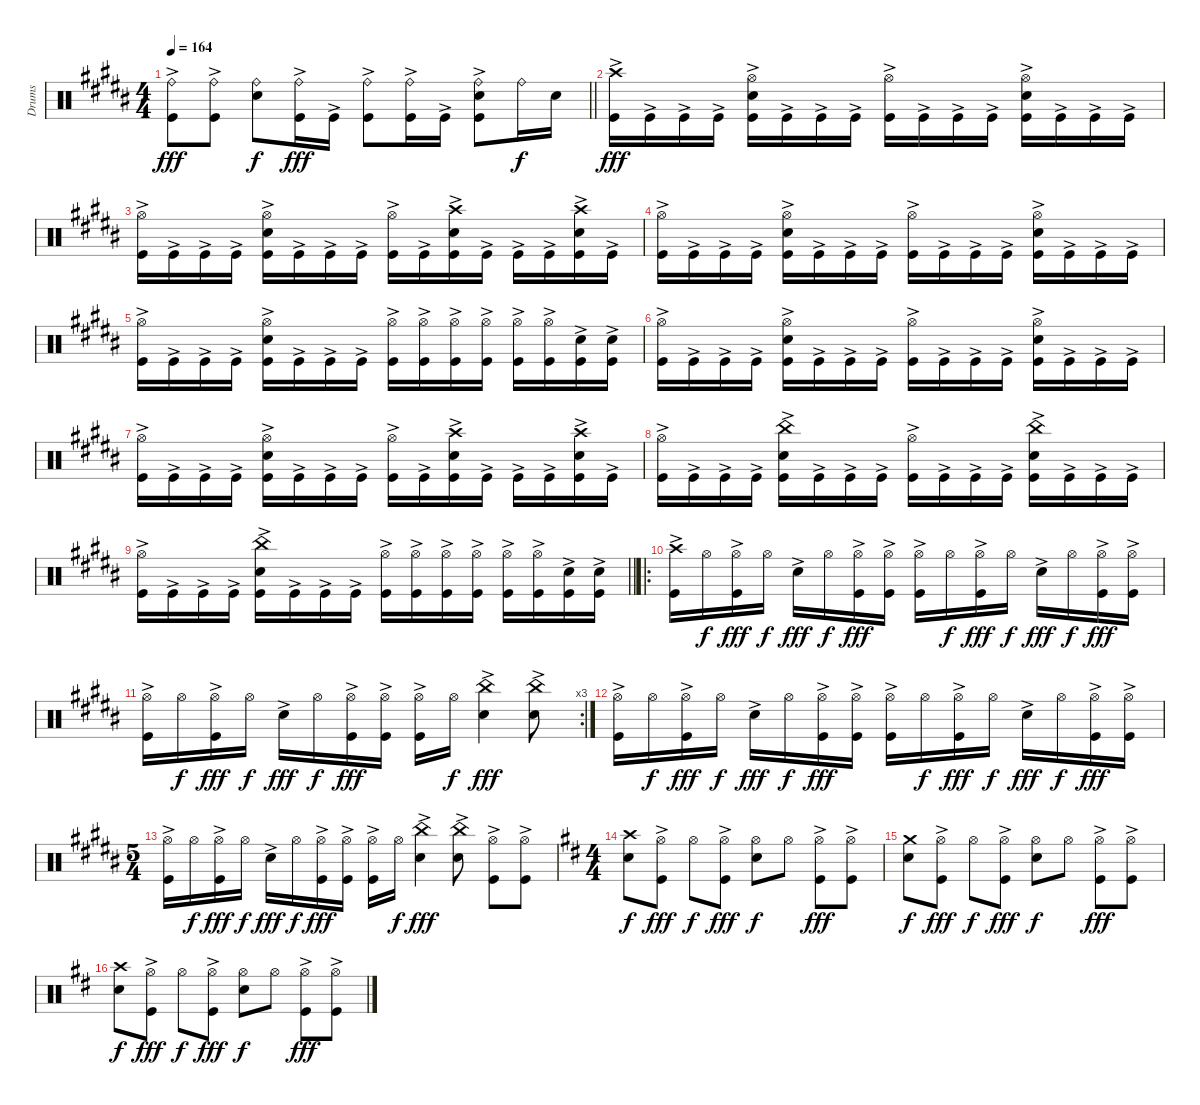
\track ("Drums" "Drums") {instrument percussion}
\staff {score}
\articulation defaults
\ts (4 4)
\tempo 164
\clef neutral
\barLineRight lightlight
\ks g#minor
("Ride (bell)" "Kick (hit)"{ac}).8{dy fff} ("Ride (bell)" "Kick (hit)"{ac}).8 ("Ride (bell)" "Snare (hit) 2").8{dy f} ("Ride (bell)" "Kick (hit)"{ac}).16{dy fff} "Kick (hit)"{ac}.16 ("Ride (bell)" "Kick (hit)"{ac}).8 ("Ride (bell)" "Kick (hit)"{ac}).16 "Kick (hit)"{ac}.16 ("Ride (bell)" "Snare (hit) 2" "Kick (hit)"{ac}).8 "Ride (bell)".16{dy f} "Snare (hit) 2".16 |
("Crash high (hit)" "Kick (hit)"{ac}).16{dy fff} "Kick (hit)"{ac}.16 "Kick (hit)"{ac}.16 "Kick (hit)"{ac}.16 ("Hi-Hat (open)" "Snare (hit) 2" "Kick (hit)"{ac}).16 "Kick (hit)"{ac}.16 "Kick (hit)"{ac}.16 "Kick (hit)"{ac}.16 ("Hi-Hat (open)" "Kick (hit)"{ac}).16 "Kick (hit)"{ac}.16 "Kick (hit)"{ac}.16 "Kick (hit)"{ac}.16 ("Hi-Hat (open)" "Snare (hit) 2" "Kick (hit)"{ac}).16 "Kick (hit)"{ac}.16 "Kick (hit)"{ac}.16 "Kick (hit)"{ac}.16 |
("Hi-Hat (open)" "Kick (hit)"{ac}).16 "Kick (hit)"{ac}.16 "Kick (hit)"{ac}.16 "Kick (hit)"{ac}.16 ("Hi-Hat (open)" "Snare (hit) 2" "Kick (hit)"{ac}).16 "Kick (hit)"{ac}.16 "Kick (hit)"{ac}.16 "Kick (hit)"{ac}.16 ("Hi-Hat (open)" "Kick (hit)"{ac}).16 "Kick (hit)"{ac}.16 ("Crash high (hit)" "Snare (hit) 2" "Kick (hit)"{ac}).16 "Kick (hit)"{ac}.16 "Kick (hit)"{ac}.16 "Kick (hit)"{ac}.16 ("Crash high (hit)" "Snare (hit) 2" "Kick (hit)"{ac}).16 "Kick (hit)"{ac}.16 |
("Hi-Hat (open)" "Kick (hit)"{ac}).16 "Kick (hit)"{ac}.16 "Kick (hit)"{ac}.16 "Kick (hit)"{ac}.16 ("Hi-Hat (open)" "Snare (hit) 2" "Kick (hit)"{ac}).16 "Kick (hit)"{ac}.16 "Kick (hit)"{ac}.16 "Kick (hit)"{ac}.16 ("Hi-Hat (open)" "Kick (hit)"{ac}).16 "Kick (hit)"{ac}.16 "Kick (hit)"{ac}.16 "Kick (hit)"{ac}.16 ("Hi-Hat (open)" "Snare (hit) 2" "Kick (hit)"{ac}).16 "Kick (hit)"{ac}.16 "Kick (hit)"{ac}.16 "Kick (hit)"{ac}.16 |
("Hi-Hat (open)" "Kick (hit)"{ac}).16 "Kick (hit)"{ac}.16 "Kick (hit)"{ac}.16 "Kick (hit)"{ac}.16 ("Hi-Hat (open)" "Snare (hit) 2" "Kick (hit)"{ac}).16 "Kick (hit)"{ac}.16 "Kick (hit)"{ac}.16 "Kick (hit)"{ac}.16 ("Hi-Hat (open)" "Kick (hit)"{ac}).16 ("Hi-Hat (open)" "Kick (hit)"{ac}).16 ("Hi-Hat (open)" "Kick (hit)"{ac}).16 ("Hi-Hat (open)" "Kick (hit)"{ac}).16 ("Hi-Hat (open)" "Kick (hit)"{ac}).16 ("Hi-Hat (open)" "Kick (hit)"{ac}).16 ("Snare (hit) 2"{ac} "Kick (hit)"{ac}).16 ("Snare (hit) 2"{ac} "Kick (hit)"{ac}).16 |
("Hi-Hat (open)" "Kick (hit)"{ac}).16 "Kick (hit)"{ac}.16 "Kick (hit)"{ac}.16 "Kick (hit)"{ac}.16 ("Hi-Hat (open)" "Snare (hit) 2" "Kick (hit)"{ac}).16 "Kick (hit)"{ac}.16 "Kick (hit)"{ac}.16 "Kick (hit)"{ac}.16 ("Hi-Hat (open)" "Kick (hit)"{ac}).16 "Kick (hit)"{ac}.16 "Kick (hit)"{ac}.16 "Kick (hit)"{ac}.16 ("Hi-Hat (open)" "Snare (hit) 2" "Kick (hit)"{ac}).16 "Kick (hit)"{ac}.16 "Kick (hit)"{ac}.16 "Kick (hit)"{ac}.16 |
("Hi-Hat (open)" "Kick (hit)"{ac}).16 "Kick (hit)"{ac}.16 "Kick (hit)"{ac}.16 "Kick (hit)"{ac}.16 ("Hi-Hat (open)" "Snare (hit) 2" "Kick (hit)"{ac}).16 "Kick (hit)"{ac}.16 "Kick (hit)"{ac}.16 "Kick (hit)"{ac}.16 ("Hi-Hat (open)" "Kick (hit)"{ac}).16 "Kick (hit)"{ac}.16 ("Crash high (hit)" "Snare (hit) 2" "Kick (hit)"{ac}).16 "Kick (hit)"{ac}.16 "Kick (hit)"{ac}.16 "Kick (hit)"{ac}.16 ("Crash high (hit)" "Snare (hit) 2" "Kick (hit)"{ac}).16 "Kick (hit)"{ac}.16 |
("Hi-Hat (open)" "Kick (hit)"{ac}).16 "Kick (hit)"{ac}.16 "Kick (hit)"{ac}.16 "Kick (hit)"{ac}.16 ("China (hit)" "Snare (hit) 2" "Kick (hit)"{ac}).16 "Kick (hit)"{ac}.16 "Kick (hit)"{ac}.16 "Kick (hit)"{ac}.16 ("Hi-Hat (open)" "Kick (hit)"{ac}).16 "Kick (hit)"{ac}.16 "Kick (hit)"{ac}.16 "Kick (hit)"{ac}.16 ("China (hit)" "Snare (hit) 2" "Kick (hit)"{ac}).16 "Kick (hit)"{ac}.16 "Kick (hit)"{ac}.16 "Kick (hit)"{ac}.16 |
\barLineRight lightlight
("Hi-Hat (open)" "Kick (hit)"{ac}).16 "Kick (hit)"{ac}.16 "Kick (hit)"{ac}.16 "Kick (hit)"{ac}.16 ("China (hit)" "Snare (hit) 2" "Kick (hit)"{ac}).16 "Kick (hit)"{ac}.16 "Kick (hit)"{ac}.16 "Kick (hit)"{ac}.16 ("Hi-Hat (open)" "Kick (hit)"{ac}).16 ("Hi-Hat (open)" "Kick (hit)"{ac}).16 ("Hi-Hat (open)" "Kick (hit)"{ac}).16 ("Hi-Hat (open)" "Kick (hit)"{ac}).16 ("Hi-Hat (open)" "Kick (hit)"{ac}).16 ("Hi-Hat (open)" "Kick (hit)"{ac}).16 ("Snare (hit) 2"{ac} "Kick (hit)"{ac}).16 ("Snare (hit) 2"{ac} "Kick (hit)"{ac}).16 |
\ro
("Crash high (hit)" "Kick (hit)"{ac}).16 "Hi-Hat (open)".16{dy f} ("Hi-Hat (open)" "Kick (hit)"{ac}).16{dy fff} "Hi-Hat (open)".16{dy f} "Snare (hit) 2"{ac}.16{dy fff} "Hi-Hat (open)".16{dy f} ("Hi-Hat (open)" "Kick (hit)"{ac}).16{dy fff} ("Hi-Hat (open)" "Kick (hit)"{ac}).16 ("Hi-Hat (open)" "Kick (hit)"{ac}).16 "Hi-Hat (open)".16{dy f} ("Hi-Hat (open)" "Kick (hit)"{ac}).16{dy fff} "Hi-Hat (open)".16{dy f} "Snare (hit) 2"{ac}.16{dy fff} "Hi-Hat (open)".16{dy f} ("Hi-Hat (open)" "Kick (hit)"{ac}).16{dy fff} ("Hi-Hat (open)" "Kick (hit)"{ac}).16 |
\rc 3
("Hi-Hat (open)" "Kick (hit)"{ac}).16 "Hi-Hat (open)".16{dy f} ("Hi-Hat (open)" "Kick (hit)"{ac}).16{dy fff} "Hi-Hat (open)".16{dy f} "Snare (hit) 2"{ac}.16{dy fff} "Hi-Hat (open)".16{dy f} ("Hi-Hat (open)" "Kick (hit)"{ac}).16{dy fff} ("Hi-Hat (open)" "Kick (hit)"{ac}).16 ("Hi-Hat (open)" "Kick (hit)"{ac}).16 "Hi-Hat (open)".16{dy f} ("China (hit)"{ac} "Snare (hit) 2"{ac}).4{dy fff} ("China (hit)"{ac} "Snare (hit) 2"{ac}).8 |
("Hi-Hat (open)" "Kick (hit)"{ac}).16 "Hi-Hat (open)".16{dy f} ("Hi-Hat (open)" "Kick (hit)"{ac}).16{dy fff} "Hi-Hat (open)".16{dy f} "Snare (hit) 2"{ac}.16{dy fff} "Hi-Hat (open)".16{dy f} ("Hi-Hat (open)" "Kick (hit)"{ac}).16{dy fff} ("Hi-Hat (open)" "Kick (hit)"{ac}).16 ("Hi-Hat (open)" "Kick (hit)"{ac}).16 "Hi-Hat (open)".16{dy f} ("Hi-Hat (open)" "Kick (hit)"{ac}).16{dy fff} "Hi-Hat (open)".16{dy f} "Snare (hit) 2"{ac}.16{dy fff} "Hi-Hat (open)".16{dy f} ("Hi-Hat (open)" "Kick (hit)"{ac}).16{dy fff} ("Hi-Hat (open)" "Kick (hit)"{ac}).16 |
\ts (5 4)
("Hi-Hat (open)" "Kick (hit)"{ac}).16 "Hi-Hat (open)".16{dy f} ("Hi-Hat (open)" "Kick (hit)"{ac}).16{dy fff} "Hi-Hat (open)".16{dy f} "Snare (hit) 2"{ac}.16{dy fff} "Hi-Hat (open)".16{dy f} ("Hi-Hat (open)" "Kick (hit)"{ac}).16{dy fff} ("Hi-Hat (open)" "Kick (hit)"{ac}).16 ("Hi-Hat (open)" "Kick (hit)"{ac}).16 "Hi-Hat (open)".16{dy f} ("China (hit)"{ac} "Snare (hit) 2"{ac}).4{dy fff} ("China (hit)"{ac} "Snare (hit) 2"{ac}).8 ("Hi-Hat (open)" "Kick (hit)"{ac}).8 ("Hi-Hat (open)" "Kick (hit)"{ac}).8 |
\ts (4 4)
\ks bminor
("Crash high (hit)" "Snare (hit) 2").8{dy f} ("Hi-Hat (open)" "Kick (hit)"{ac}).8{dy fff} "Hi-Hat (open)".8{dy f} ("Hi-Hat (open)" "Kick (hit)"{ac}).8{dy fff} ("Hi-Hat (open)" "Snare (hit) 2").8{dy f} "Hi-Hat (open)".8 ("Hi-Hat (open)" "Kick (hit)"{ac}).8{dy fff} ("Hi-Hat (open)" "Kick (hit)"{ac}).8 |
("Crash medium (hit)" "Snare (hit) 2").8{dy f} ("Hi-Hat (open)" "Kick (hit)"{ac}).8{dy fff} "Hi-Hat (open)".8{dy f} ("Hi-Hat (open)" "Kick (hit)"{ac}).8{dy fff} ("Hi-Hat (open)" "Snare (hit) 2").8{dy f} "Hi-Hat (open)".8 ("Hi-Hat (open)" "Kick (hit)"{ac}).8{dy fff} ("Hi-Hat (open)" "Kick (hit)"{ac}).8 |
("Crash high (hit)" "Snare (hit) 2").8{dy f} ("Hi-Hat (open)" "Kick (hit)"{ac}).8{dy fff} "Hi-Hat (open)".8{dy f} ("Hi-Hat (open)" "Kick (hit)"{ac}).8{dy fff} ("Hi-Hat (open)" "Snare (hit) 2").8{dy f} "Hi-Hat (open)".8 ("Hi-Hat (open)" "Kick (hit)"{ac}).8{dy fff} ("Hi-Hat (open)" "Kick (hit)"{ac}).8
